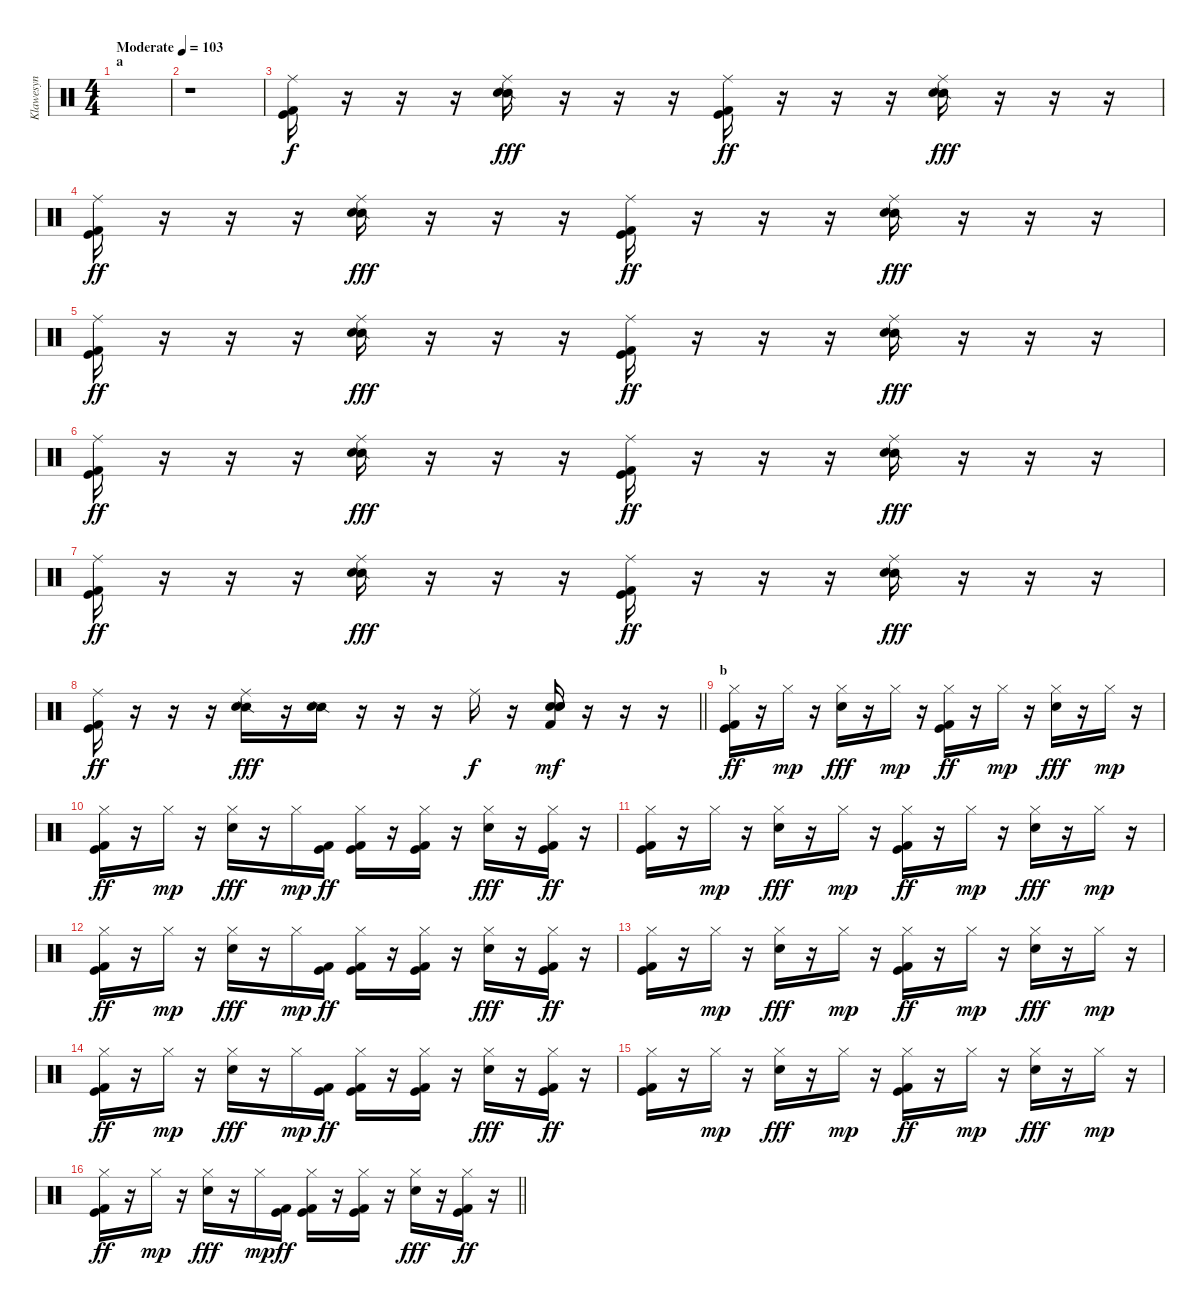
\track ("Klawesyn" "Klawesyn") {instrument percussion}
\staff {score}
\articulation defaults
\ts (4 4)
\section ("" "a")
\tempo (103 "Moderate")
\clef neutral
\ks c
|
r.1{volume 0} |
("Ride (middle)" "Kick (hit)" "Kick (hit) 2").16{volume 2} r.16 r.16 r.16 ("Ride (middle)" "Snare (side stick) 2" "Electric Snare (hit)").16{dy fff} r.16 r.16 r.16 ("Ride (middle)" "Kick (hit)" "Kick (hit) 2").16{dy ff} r.16 r.16 r.16 ("Ride (middle)" "Snare (side stick) 2" "Electric Snare (hit)").16{dy fff} r.16 r.16 r.16 |
("Ride (middle)" "Kick (hit)" "Kick (hit) 2").16{dy ff} r.16 r.16 r.16 ("Ride (middle)" "Snare (side stick) 2" "Electric Snare (hit)").16{dy fff} r.16 r.16 r.16 ("Ride (middle)" "Kick (hit)" "Kick (hit) 2").16{dy ff} r.16 r.16 r.16 ("Ride (middle)" "Snare (side stick) 2" "Electric Snare (hit)").16{dy fff} r.16 r.16 r.16 |
("Ride (middle)" "Kick (hit)" "Kick (hit) 2").16{dy ff volume 4} r.16 r.16 r.16 ("Ride (middle)" "Snare (side stick) 2" "Electric Snare (hit)").16{dy fff} r.16 r.16 r.16 ("Ride (middle)" "Kick (hit)" "Kick (hit) 2").16{dy ff} r.16 r.16 r.16 ("Ride (middle)" "Snare (side stick) 2" "Electric Snare (hit)").16{dy fff} r.16 r.16 r.16 |
("Ride (middle)" "Kick (hit)" "Kick (hit) 2").16{dy ff} r.16 r.16 r.16 ("Ride (middle)" "Snare (side stick) 2" "Electric Snare (hit)").16{dy fff} r.16 r.16 r.16 ("Ride (middle)" "Kick (hit)" "Kick (hit) 2").16{dy ff} r.16 r.16 r.16 ("Ride (middle)" "Snare (side stick) 2" "Electric Snare (hit)").16{dy fff} r.16 r.16 r.16 |
("Ride (middle)" "Kick (hit)" "Kick (hit) 2").16{dy ff} r.16 r.16 r.16 ("Ride (middle)" "Snare (side stick) 2" "Electric Snare (hit)").16{dy fff} r.16 r.16 r.16 ("Ride (middle)" "Kick (hit)" "Kick (hit) 2").16{dy ff} r.16 r.16 r.16 ("Ride (middle)" "Snare (side stick) 2" "Electric Snare (hit)").16{dy fff} r.16 r.16 r.16 |
\barLineRight lightlight
("Ride (middle)" "Kick (hit)" "Kick (hit) 2").16{dy ff} r.16 r.16 r.16 ("Ride (middle)" "Snare (side stick) 2" "Electric Snare (hit)").16{dy fff} r.16 ("Snare (side stick) 2" "Electric Snare (hit)").16 r.16 r.16 r.16 "Ride (middle)".16{dy f} r.16 ("Snare (hit) 2" "Electric Snare (hit)" "Electric Snare (hit)" "Kick (hit) 2").16{dy mf volume 16} r.16 r.16 r.16 |
\section ("" "b")
("Hi-Hat (closed)" "Kick (hit)" "Kick (hit) 2").16{dy ff} r.16 "Hi-Hat (closed)".16{dy mp} r.16 ("Hi-Hat (closed)" "Electric Snare (hit)").16{dy fff} r.16 "Hi-Hat (closed)".16{dy mp} r.16 ("Hi-Hat (closed)" "Kick (hit)" "Kick (hit) 2").16{dy ff} r.16 "Hi-Hat (closed)".16{dy mp} r.16 ("Hi-Hat (closed)" "Electric Snare (hit)").16{dy fff} r.16 "Hi-Hat (closed)".16{dy mp} r.16 |
("Hi-Hat (closed)" "Kick (hit)" "Kick (hit) 2").16{dy ff} r.16 "Hi-Hat (closed)".16{dy mp} r.16 ("Hi-Hat (closed)" "Electric Snare (hit)").16{dy fff} r.16 "Hi-Hat (closed)".16{dy mp} ("Kick (hit)" "Kick (hit) 2").16{dy ff} ("Hi-Hat (closed)" "Kick (hit)" "Kick (hit) 2").16 r.16 ("Hi-Hat (closed)" "Kick (hit)" "Kick (hit) 2").16 r.16 ("Hi-Hat (closed)" "Electric Snare (hit)").16{dy fff} r.16 ("Hi-Hat (closed)" "Kick (hit)" "Kick (hit) 2").16{dy ff} r.16 |
("Hi-Hat (closed)" "Kick (hit)" "Kick (hit) 2").16 r.16 "Hi-Hat (closed)".16{dy mp} r.16 ("Hi-Hat (closed)" "Electric Snare (hit)").16{dy fff} r.16 "Hi-Hat (closed)".16{dy mp} r.16 ("Hi-Hat (closed)" "Kick (hit)" "Kick (hit) 2").16{dy ff} r.16 "Hi-Hat (closed)".16{dy mp} r.16 ("Hi-Hat (closed)" "Electric Snare (hit)").16{dy fff} r.16 "Hi-Hat (closed)".16{dy mp} r.16 |
("Hi-Hat (closed)" "Kick (hit)" "Kick (hit) 2").16{dy ff} r.16 "Hi-Hat (closed)".16{dy mp} r.16 ("Hi-Hat (closed)" "Electric Snare (hit)").16{dy fff} r.16 "Hi-Hat (closed)".16{dy mp} ("Kick (hit)" "Kick (hit) 2").16{dy ff} ("Hi-Hat (closed)" "Kick (hit)" "Kick (hit) 2").16 r.16 ("Hi-Hat (closed)" "Kick (hit)" "Kick (hit) 2").16 r.16 ("Hi-Hat (closed)" "Electric Snare (hit)").16{dy fff} r.16 ("Hi-Hat (closed)" "Kick (hit)" "Kick (hit) 2").16{dy ff} r.16 |
("Hi-Hat (closed)" "Kick (hit)" "Kick (hit) 2").16 r.16 "Hi-Hat (closed)".16{dy mp} r.16 ("Hi-Hat (closed)" "Electric Snare (hit)").16{dy fff} r.16 "Hi-Hat (closed)".16{dy mp} r.16 ("Hi-Hat (closed)" "Kick (hit)" "Kick (hit) 2").16{dy ff} r.16 "Hi-Hat (closed)".16{dy mp} r.16 ("Hi-Hat (closed)" "Electric Snare (hit)").16{dy fff} r.16 "Hi-Hat (closed)".16{dy mp} r.16 |
("Hi-Hat (closed)" "Kick (hit)" "Kick (hit) 2").16{dy ff} r.16 "Hi-Hat (closed)".16{dy mp} r.16 ("Hi-Hat (closed)" "Electric Snare (hit)").16{dy fff} r.16 "Hi-Hat (closed)".16{dy mp} ("Kick (hit)" "Kick (hit) 2").16{dy ff} ("Hi-Hat (closed)" "Kick (hit)" "Kick (hit) 2").16 r.16 ("Hi-Hat (closed)" "Kick (hit)" "Kick (hit) 2").16 r.16 ("Hi-Hat (closed)" "Electric Snare (hit)").16{dy fff} r.16 ("Hi-Hat (closed)" "Kick (hit)" "Kick (hit) 2").16{dy ff} r.16 |
("Hi-Hat (closed)" "Kick (hit)" "Kick (hit) 2").16 r.16 "Hi-Hat (closed)".16{dy mp} r.16 ("Hi-Hat (closed)" "Electric Snare (hit)").16{dy fff} r.16 "Hi-Hat (closed)".16{dy mp} r.16 ("Hi-Hat (closed)" "Kick (hit)" "Kick (hit) 2").16{dy ff} r.16 "Hi-Hat (closed)".16{dy mp} r.16 ("Hi-Hat (closed)" "Electric Snare (hit)").16{dy fff} r.16 "Hi-Hat (closed)".16{dy mp} r.16 |
\barLineRight lightlight
("Hi-Hat (closed)" "Kick (hit)" "Kick (hit) 2").16{dy ff} r.16 "Hi-Hat (closed)".16{dy mp} r.16 ("Hi-Hat (closed)" "Electric Snare (hit)").16{dy fff} r.16 "Hi-Hat (closed)".16{dy mp} ("Kick (hit)" "Kick (hit) 2").16{dy ff} ("Hi-Hat (closed)" "Kick (hit)" "Kick (hit) 2").16 r.16 ("Hi-Hat (closed)" "Kick (hit)" "Kick (hit) 2").16 r.16 ("Hi-Hat (closed)" "Electric Snare (hit)").16{dy fff} r.16 ("Hi-Hat (closed)" "Kick (hit)" "Kick (hit) 2").16{dy ff} r.16
